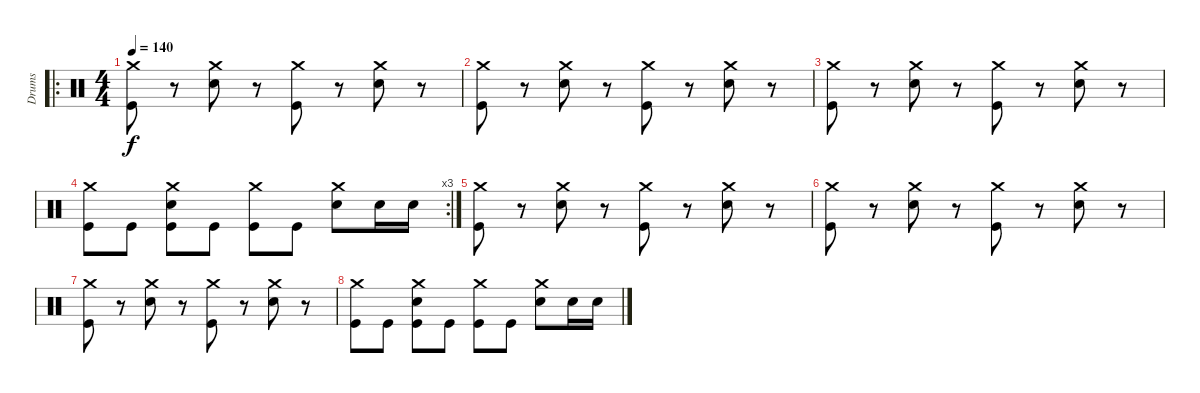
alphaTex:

\track ("Drums" "Drums") {instrument percussion}
\staff {score}
\articulation defaults
\ro
\ts (4 4)
\tempo 140
\clef neutral
\ks c
("Crash medium (hit)" "Kick (hit)").8{dy f} r.8 ("Crash medium (hit)" "Snare (hit) 2").8 r.8 ("Crash medium (hit)" "Kick (hit)").8 r.8 ("Crash medium (hit)" "Snare (hit) 2").8 r.8 |
("Crash medium (hit)" "Kick (hit)").8 r.8 ("Crash medium (hit)" "Snare (hit) 2").8 r.8 ("Crash medium (hit)" "Kick (hit)").8 r.8 ("Crash medium (hit)" "Snare (hit) 2").8 r.8 |
("Crash medium (hit)" "Kick (hit)").8 r.8 ("Crash medium (hit)" "Snare (hit) 2").8 r.8 ("Crash medium (hit)" "Kick (hit)").8 r.8 ("Crash medium (hit)" "Snare (hit) 2").8 r.8 |
\rc 3
("Crash medium (hit)" "Kick (hit)").8 "Kick (hit)".8 ("Crash medium (hit)" "Snare (hit) 2" "Kick (hit)").8 "Kick (hit)".8 ("Crash medium (hit)" "Kick (hit)").8 "Kick (hit)".8 ("Crash medium (hit)" "Snare (hit) 2").8 "Snare (hit) 2".16 "Snare (hit) 2".16 |
("Crash medium (hit)" "Kick (hit)").8{volume 0} r.8 ("Crash medium (hit)" "Snare (hit) 2").8 r.8 ("Crash medium (hit)" "Kick (hit)").8 r.8 ("Crash medium (hit)" "Snare (hit) 2").8 r.8 |
("Crash medium (hit)" "Kick (hit)").8 r.8 ("Crash medium (hit)" "Snare (hit) 2").8 r.8 ("Crash medium (hit)" "Kick (hit)").8 r.8 ("Crash medium (hit)" "Snare (hit) 2").8 r.8 |
("Crash medium (hit)" "Kick (hit)").8 r.8 ("Crash medium (hit)" "Snare (hit) 2").8 r.8 ("Crash medium (hit)" "Kick (hit)").8 r.8 ("Crash medium (hit)" "Snare (hit) 2").8 r.8 |
("Crash medium (hit)" "Kick (hit)").8 "Kick (hit)".8 ("Crash medium (hit)" "Snare (hit) 2" "Kick (hit)").8 "Kick (hit)".8 ("Crash medium (hit)" "Kick (hit)").8 "Kick (hit)".8 ("Crash medium (hit)" "Snare (hit) 2").8 "Snare (hit) 2".16 "Snare (hit) 2".16
